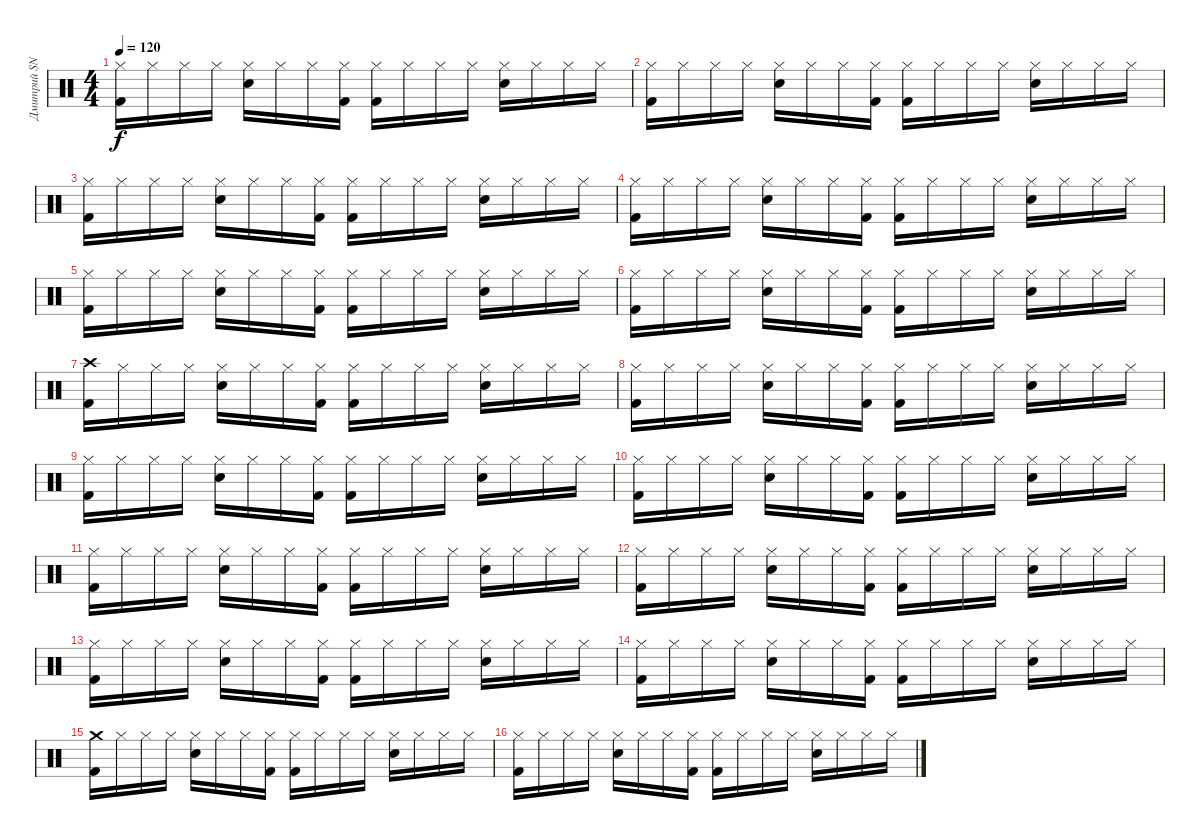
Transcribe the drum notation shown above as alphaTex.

\track ("Дмитрий SNAKE Хакимов" "Дмитрий SN") {instrument percussion}
\staff {score}
\articulation defaults
\ts (4 4)
\tempo 120
\clef neutral
\ks c
("Hi-Hat (closed)" "Kick (hit) 2").16{dy f} "Hi-Hat (closed)".16 "Hi-Hat (closed)".16 "Hi-Hat (closed)".16 ("Hi-Hat (closed)" "Snare (hit) 2").16 "Hi-Hat (closed)".16 "Hi-Hat (closed)".16 ("Hi-Hat (closed)" "Kick (hit) 2").16 ("Hi-Hat (closed)" "Kick (hit) 2").16 "Hi-Hat (closed)".16 "Hi-Hat (closed)".16 "Hi-Hat (closed)".16 ("Hi-Hat (closed)" "Snare (hit) 2").16 "Hi-Hat (closed)".16 "Hi-Hat (closed)".16 "Hi-Hat (closed)".16 |
("Hi-Hat (closed)" "Kick (hit) 2").16 "Hi-Hat (closed)".16 "Hi-Hat (closed)".16 "Hi-Hat (closed)".16 ("Hi-Hat (closed)" "Snare (hit) 2").16 "Hi-Hat (closed)".16 "Hi-Hat (closed)".16 ("Hi-Hat (closed)" "Kick (hit) 2").16 ("Hi-Hat (closed)" "Kick (hit) 2").16 "Hi-Hat (closed)".16 "Hi-Hat (closed)".16 "Hi-Hat (closed)".16 ("Hi-Hat (closed)" "Snare (hit) 2").16 "Hi-Hat (closed)".16 "Hi-Hat (closed)".16 "Hi-Hat (closed)".16 |
("Hi-Hat (closed)" "Kick (hit) 2").16 "Hi-Hat (closed)".16 "Hi-Hat (closed)".16 "Hi-Hat (closed)".16 ("Hi-Hat (closed)" "Snare (hit) 2").16 "Hi-Hat (closed)".16 "Hi-Hat (closed)".16 ("Hi-Hat (closed)" "Kick (hit) 2").16 ("Hi-Hat (closed)" "Kick (hit) 2").16 "Hi-Hat (closed)".16 "Hi-Hat (closed)".16 "Hi-Hat (closed)".16 ("Hi-Hat (closed)" "Snare (hit) 2").16 "Hi-Hat (closed)".16 "Hi-Hat (closed)".16 "Hi-Hat (closed)".16 |
("Hi-Hat (closed)" "Kick (hit) 2").16 "Hi-Hat (closed)".16 "Hi-Hat (closed)".16 "Hi-Hat (closed)".16 ("Hi-Hat (closed)" "Snare (hit) 2").16 "Hi-Hat (closed)".16 "Hi-Hat (closed)".16 ("Hi-Hat (closed)" "Kick (hit) 2").16 ("Hi-Hat (closed)" "Kick (hit) 2").16 "Hi-Hat (closed)".16 "Hi-Hat (closed)".16 "Hi-Hat (closed)".16 ("Hi-Hat (closed)" "Snare (hit) 2").16 "Hi-Hat (closed)".16 "Hi-Hat (closed)".16 "Hi-Hat (closed)".16 |
("Hi-Hat (closed)" "Kick (hit) 2").16 "Hi-Hat (closed)".16 "Hi-Hat (closed)".16 "Hi-Hat (closed)".16 ("Hi-Hat (closed)" "Snare (hit) 2").16 "Hi-Hat (closed)".16 "Hi-Hat (closed)".16 ("Hi-Hat (closed)" "Kick (hit) 2").16 ("Hi-Hat (closed)" "Kick (hit) 2").16 "Hi-Hat (closed)".16 "Hi-Hat (closed)".16 "Hi-Hat (closed)".16 ("Hi-Hat (closed)" "Snare (hit) 2").16 "Hi-Hat (closed)".16 "Hi-Hat (closed)".16 "Hi-Hat (closed)".16 |
("Hi-Hat (closed)" "Kick (hit) 2").16 "Hi-Hat (closed)".16 "Hi-Hat (closed)".16 "Hi-Hat (closed)".16 ("Hi-Hat (closed)" "Snare (hit) 2").16 "Hi-Hat (closed)".16 "Hi-Hat (closed)".16 ("Hi-Hat (closed)" "Kick (hit) 2").16 ("Hi-Hat (closed)" "Kick (hit) 2").16 "Hi-Hat (closed)".16 "Hi-Hat (closed)".16 "Hi-Hat (closed)".16 ("Hi-Hat (closed)" "Snare (hit) 2").16 "Hi-Hat (closed)".16 "Hi-Hat (closed)".16 "Hi-Hat (closed)".16 |
("Crash high (hit)" "Kick (hit) 2").16 "Hi-Hat (closed)".16 "Hi-Hat (closed)".16 "Hi-Hat (closed)".16 ("Hi-Hat (closed)" "Snare (hit) 2").16 "Hi-Hat (closed)".16 "Hi-Hat (closed)".16 ("Hi-Hat (closed)" "Kick (hit) 2").16 ("Hi-Hat (closed)" "Kick (hit) 2").16 "Hi-Hat (closed)".16 "Hi-Hat (closed)".16 "Hi-Hat (closed)".16 ("Hi-Hat (closed)" "Snare (hit) 2").16 "Hi-Hat (closed)".16 "Hi-Hat (closed)".16 "Hi-Hat (closed)".16 |
("Hi-Hat (closed)" "Kick (hit) 2").16 "Hi-Hat (closed)".16 "Hi-Hat (closed)".16 "Hi-Hat (closed)".16 ("Hi-Hat (closed)" "Snare (hit) 2").16 "Hi-Hat (closed)".16 "Hi-Hat (closed)".16 ("Hi-Hat (closed)" "Kick (hit) 2").16 ("Hi-Hat (closed)" "Kick (hit) 2").16 "Hi-Hat (closed)".16 "Hi-Hat (closed)".16 "Hi-Hat (closed)".16 ("Hi-Hat (closed)" "Snare (hit) 2").16 "Hi-Hat (closed)".16 "Hi-Hat (closed)".16 "Hi-Hat (closed)".16 |
("Hi-Hat (closed)" "Kick (hit) 2").16 "Hi-Hat (closed)".16 "Hi-Hat (closed)".16 "Hi-Hat (closed)".16 ("Hi-Hat (closed)" "Snare (hit) 2").16 "Hi-Hat (closed)".16 "Hi-Hat (closed)".16 ("Hi-Hat (closed)" "Kick (hit) 2").16 ("Hi-Hat (closed)" "Kick (hit) 2").16 "Hi-Hat (closed)".16 "Hi-Hat (closed)".16 "Hi-Hat (closed)".16 ("Hi-Hat (closed)" "Snare (hit) 2").16 "Hi-Hat (closed)".16 "Hi-Hat (closed)".16 "Hi-Hat (closed)".16 |
("Hi-Hat (closed)" "Kick (hit) 2").16 "Hi-Hat (closed)".16 "Hi-Hat (closed)".16 "Hi-Hat (closed)".16 ("Hi-Hat (closed)" "Snare (hit) 2").16 "Hi-Hat (closed)".16 "Hi-Hat (closed)".16 ("Hi-Hat (closed)" "Kick (hit) 2").16 ("Hi-Hat (closed)" "Kick (hit) 2").16 "Hi-Hat (closed)".16 "Hi-Hat (closed)".16 "Hi-Hat (closed)".16 ("Hi-Hat (closed)" "Snare (hit) 2").16 "Hi-Hat (closed)".16 "Hi-Hat (closed)".16 "Hi-Hat (closed)".16 |
("Hi-Hat (closed)" "Kick (hit) 2").16 "Hi-Hat (closed)".16 "Hi-Hat (closed)".16 "Hi-Hat (closed)".16 ("Hi-Hat (closed)" "Snare (hit) 2").16 "Hi-Hat (closed)".16 "Hi-Hat (closed)".16 ("Hi-Hat (closed)" "Kick (hit) 2").16 ("Hi-Hat (closed)" "Kick (hit) 2").16 "Hi-Hat (closed)".16 "Hi-Hat (closed)".16 "Hi-Hat (closed)".16 ("Hi-Hat (closed)" "Snare (hit) 2").16 "Hi-Hat (closed)".16 "Hi-Hat (closed)".16 "Hi-Hat (closed)".16 |
("Hi-Hat (closed)" "Kick (hit) 2").16 "Hi-Hat (closed)".16 "Hi-Hat (closed)".16 "Hi-Hat (closed)".16 ("Hi-Hat (closed)" "Snare (hit) 2").16 "Hi-Hat (closed)".16 "Hi-Hat (closed)".16 ("Hi-Hat (closed)" "Kick (hit) 2").16 ("Hi-Hat (closed)" "Kick (hit) 2").16 "Hi-Hat (closed)".16 "Hi-Hat (closed)".16 "Hi-Hat (closed)".16 ("Hi-Hat (closed)" "Snare (hit) 2").16 "Hi-Hat (closed)".16 "Hi-Hat (closed)".16 "Hi-Hat (closed)".16 |
("Hi-Hat (closed)" "Kick (hit) 2").16 "Hi-Hat (closed)".16 "Hi-Hat (closed)".16 "Hi-Hat (closed)".16 ("Hi-Hat (closed)" "Snare (hit) 2").16 "Hi-Hat (closed)".16 "Hi-Hat (closed)".16 ("Hi-Hat (closed)" "Kick (hit) 2").16 ("Hi-Hat (closed)" "Kick (hit) 2").16 "Hi-Hat (closed)".16 "Hi-Hat (closed)".16 "Hi-Hat (closed)".16 ("Hi-Hat (closed)" "Snare (hit) 2").16 "Hi-Hat (closed)".16 "Hi-Hat (closed)".16 "Hi-Hat (closed)".16 |
("Hi-Hat (closed)" "Kick (hit) 2").16 "Hi-Hat (closed)".16 "Hi-Hat (closed)".16 "Hi-Hat (closed)".16 ("Hi-Hat (closed)" "Snare (hit) 2").16 "Hi-Hat (closed)".16 "Hi-Hat (closed)".16 ("Hi-Hat (closed)" "Kick (hit) 2").16 ("Hi-Hat (closed)" "Kick (hit) 2").16 "Hi-Hat (closed)".16 "Hi-Hat (closed)".16 "Hi-Hat (closed)".16 ("Hi-Hat (closed)" "Snare (hit) 2").16 "Hi-Hat (closed)".16 "Hi-Hat (closed)".16 "Hi-Hat (closed)".16 |
("Crash medium (hit)" "Kick (hit) 2").16 "Hi-Hat (closed)".16 "Hi-Hat (closed)".16 "Hi-Hat (closed)".16 ("Hi-Hat (closed)" "Snare (hit) 2").16 "Hi-Hat (closed)".16 "Hi-Hat (closed)".16 ("Hi-Hat (closed)" "Kick (hit) 2").16 ("Hi-Hat (closed)" "Kick (hit) 2").16 "Hi-Hat (closed)".16 "Hi-Hat (closed)".16 "Hi-Hat (closed)".16 ("Hi-Hat (closed)" "Snare (hit) 2").16 "Hi-Hat (closed)".16 "Hi-Hat (closed)".16 "Hi-Hat (closed)".16 |
("Hi-Hat (closed)" "Kick (hit) 2").16 "Hi-Hat (closed)".16 "Hi-Hat (closed)".16 "Hi-Hat (closed)".16 ("Hi-Hat (closed)" "Snare (hit) 2").16 "Hi-Hat (closed)".16 "Hi-Hat (closed)".16 ("Hi-Hat (closed)" "Kick (hit) 2").16 ("Hi-Hat (closed)" "Kick (hit) 2").16 "Hi-Hat (closed)".16 "Hi-Hat (closed)".16 "Hi-Hat (closed)".16 ("Hi-Hat (closed)" "Snare (hit) 2").16 "Hi-Hat (closed)".16 "Hi-Hat (closed)".16 "Hi-Hat (closed)".16
